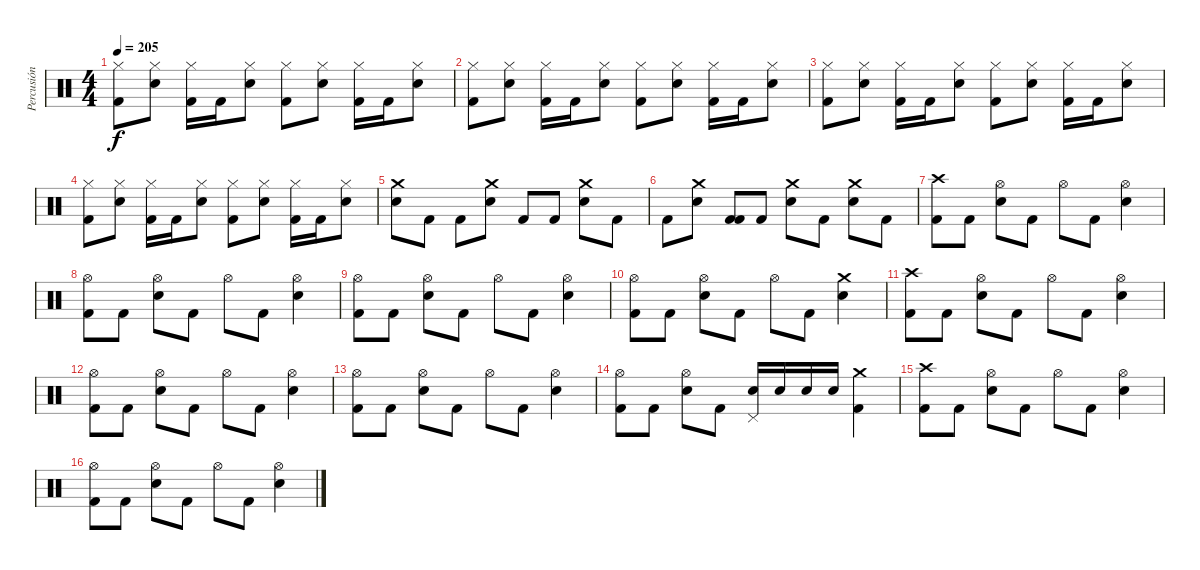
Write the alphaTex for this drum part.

\track ("Percusión" "Percusión") {instrument percussion}
\staff {score}
\articulation defaults
\ts (4 4)
\tempo 205
\clef neutral
\ks c
("Hi-Hat (closed)" "Kick (hit) 2").8{dy f} ("Hi-Hat (closed)" "Snare (hit) 2").8 ("Hi-Hat (closed)" "Kick (hit) 2").16 "Kick (hit) 2".16 ("Hi-Hat (closed)" "Snare (hit) 2").8 ("Hi-Hat (closed)" "Kick (hit) 2").8 ("Hi-Hat (closed)" "Snare (hit) 2").8 ("Hi-Hat (closed)" "Kick (hit) 2").16 "Kick (hit) 2".16 ("Hi-Hat (closed)" "Snare (hit) 2").8 |
("Hi-Hat (closed)" "Kick (hit) 2").8 ("Hi-Hat (closed)" "Snare (hit) 2").8 ("Hi-Hat (closed)" "Kick (hit) 2").16 "Kick (hit) 2".16 ("Hi-Hat (closed)" "Snare (hit) 2").8 ("Hi-Hat (closed)" "Kick (hit) 2").8 ("Hi-Hat (closed)" "Snare (hit) 2").8 ("Hi-Hat (closed)" "Kick (hit) 2").16 "Kick (hit) 2".16 ("Hi-Hat (closed)" "Snare (hit) 2").8 |
("Hi-Hat (closed)" "Kick (hit) 2").8 ("Hi-Hat (closed)" "Snare (hit) 2").8 ("Hi-Hat (closed)" "Kick (hit) 2").16 "Kick (hit) 2".16 ("Hi-Hat (closed)" "Snare (hit) 2").8 ("Hi-Hat (closed)" "Kick (hit) 2").8 ("Hi-Hat (closed)" "Snare (hit) 2").8 ("Hi-Hat (closed)" "Kick (hit) 2").16 "Kick (hit) 2".16 ("Hi-Hat (closed)" "Snare (hit) 2").8 |
("Hi-Hat (closed)" "Kick (hit) 2").8 ("Hi-Hat (closed)" "Snare (hit) 2").8 ("Hi-Hat (closed)" "Kick (hit) 2").16 "Kick (hit) 2".16 ("Hi-Hat (closed)" "Snare (hit) 2").8 ("Hi-Hat (closed)" "Kick (hit) 2").8 ("Hi-Hat (closed)" "Snare (hit) 2").8 ("Hi-Hat (closed)" "Kick (hit) 2").16 "Kick (hit) 2".16 ("Hi-Hat (closed)" "Snare (hit) 2").8 |
("Crash medium (hit)" "Snare (hit) 2").8 "Kick (hit) 2".8 "Kick (hit) 2".8 ("Crash medium (hit)" "Snare (hit) 2").8 "Kick (hit) 2".8 "Kick (hit) 2".8 ("Crash medium (hit)" "Snare (hit) 2").8 "Kick (hit) 2".8 |
"Kick (hit) 2".8 ("Crash medium (hit)" "Snare (hit) 2").8 ("Kick (hit) 2" "Kick (hit) 2").8 "Kick (hit) 2".8 ("Snare (hit) 2" "Crash medium (hit)").8 "Kick (hit) 2".8 ("Crash medium (hit)" "Snare (hit) 2").8 "Kick (hit) 2".8 |
("Crash high (hit)" "Kick (hit) 2").8 "Kick (hit) 2".8 ("Hi-Hat (open)" "Snare (hit) 2").8 "Kick (hit) 2".8 "Hi-Hat (open)".8 "Kick (hit) 2".8 ("Snare (hit) 2" "Hi-Hat (open)").4 |
("Hi-Hat (open)" "Kick (hit) 2").8 "Kick (hit) 2".8 ("Hi-Hat (open)" "Snare (hit) 2").8 "Kick (hit) 2".8 "Hi-Hat (open)".8 "Kick (hit) 2".8 ("Snare (hit) 2" "Hi-Hat (open)").4 |
("Hi-Hat (open)" "Kick (hit) 2").8 "Kick (hit) 2".8 ("Hi-Hat (open)" "Snare (hit) 2").8 "Kick (hit) 2".8 "Hi-Hat (open)".8 "Kick (hit) 2".8 ("Snare (hit) 2" "Hi-Hat (open)").4 |
("Hi-Hat (open)" "Kick (hit) 2").8 "Kick (hit) 2".8 ("Hi-Hat (open)" "Snare (hit) 2").8 "Kick (hit) 2".8 "Hi-Hat (open)".8 "Kick (hit) 2".8 ("Snare (hit) 2" "Crash medium (hit)").4 |
("Crash high (hit)" "Kick (hit) 2").8 "Kick (hit) 2".8 ("Hi-Hat (open)" "Snare (hit) 2").8 "Kick (hit) 2".8 "Hi-Hat (open)".8 "Kick (hit) 2".8 ("Snare (hit) 2" "Hi-Hat (open)").4 |
("Hi-Hat (open)" "Kick (hit) 2").8 "Kick (hit) 2".8 ("Hi-Hat (open)" "Snare (hit) 2").8 "Kick (hit) 2".8 "Hi-Hat (open)".8 "Kick (hit) 2".8 ("Snare (hit) 2" "Hi-Hat (open)").4 |
("Hi-Hat (open)" "Kick (hit) 2").8 "Kick (hit) 2".8 ("Hi-Hat (open)" "Snare (hit) 2").8 "Kick (hit) 2".8 "Hi-Hat (open)".8 "Kick (hit) 2".8 ("Snare (hit) 2" "Hi-Hat (open)").4 |
("Hi-Hat (open)" "Kick (hit) 2").8 "Kick (hit) 2".8 ("Hi-Hat (open)" "Snare (hit) 2").8 "Kick (hit) 2".8 ("Pedal Hi-Hat (hit)" "Snare (hit) 2").16 "Snare (hit) 2".16 "Snare (hit) 2".16 "Snare (hit) 2".16 ("Crash medium (hit)" "Kick (hit) 2").4 |
("Crash high (hit)" "Kick (hit) 2").8 "Kick (hit) 2".8 ("Hi-Hat (open)" "Snare (hit) 2").8 "Kick (hit) 2".8 "Hi-Hat (open)".8 "Kick (hit) 2".8 ("Snare (hit) 2" "Hi-Hat (open)").4 |
("Hi-Hat (open)" "Kick (hit) 2").8 "Kick (hit) 2".8 ("Hi-Hat (open)" "Snare (hit) 2").8 "Kick (hit) 2".8 "Hi-Hat (open)".8 "Kick (hit) 2".8 ("Snare (hit) 2" "Hi-Hat (open)").4
